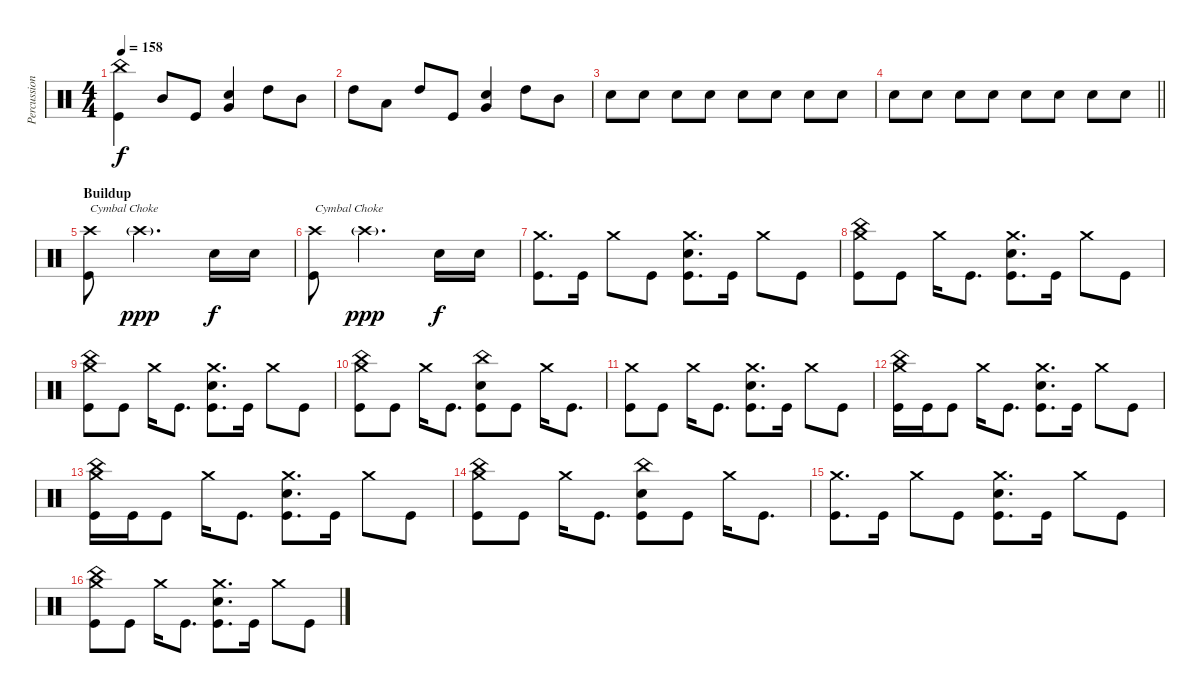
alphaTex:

\track ("Percussion" "Percussion") {instrument percussion}
\staff {score}
\articulation defaults
\ts (4 4)
\tempo 158
\clef neutral
\ks c
("China (hit)" "Kick (hit)").4{dy f} "Mid Tom (hit)".8 "Kick (hit)".8 ("Electric Snare (hit)" "Very Low Tom (hit)").4 "High Tom (hit)".8 "Mid Tom (hit)".8 |
"High Tom (hit)".8 "Low Tom (hit)".8 "High Tom (hit)".8 "Kick (hit)".8 ("Electric Snare (hit)" "Very Low Tom (hit)").4 "High Tom (hit)".8 "Mid Tom (hit)".8 |
"Electric Snare (hit)".8 "Electric Snare (hit)".8 "Electric Snare (hit)".8 "Electric Snare (hit)".8 "Electric Snare (hit)".8 "Electric Snare (hit)".8 "Electric Snare (hit)".8 "Electric Snare (hit)".8 |
\barLineRight lightlight "Electric Snare (hit)".8 "Electric Snare (hit)".8 "Electric Snare (hit)".8 "Electric Snare (hit)".8 "Electric Snare (hit)".8 "Electric Snare (hit)".8 "Electric Snare (hit)".8 "Electric Snare (hit)".8
|
\section ("" "Buildup")
("Crash high (hit)" "Kick (hit)").8{txt "Cymbal Choke"} "Crash high (hit)"{g}.2{d dy ppp} "Electric Snare (hit)".16{dy f} "Electric Snare (hit)".16 |
("Crash high (hit)" "Kick (hit)").8{txt "Cymbal Choke"} "Crash high (hit)"{g}.2{d dy ppp} "Electric Snare (hit)".16{dy f} "Electric Snare (hit)".16 |
("Crash medium (hit)" "Kick (hit)").8{d} "Kick (hit)".16 "Crash medium (hit)".8 "Kick (hit)".8 ("Crash medium (hit)" "Electric Snare (hit)" "Kick (hit)").8{d} "Kick (hit)".16 "Crash medium (hit)".8 "Kick (hit)".8 |
("Crash medium (hit)" "China (hit)" "Kick (hit)").8 "Kick (hit)".8 "Crash medium (hit)".16 "Kick (hit)".8{d} ("Crash medium (hit)" "Electric Snare (hit)" "Kick (hit)").8{d} "Kick (hit)".16 "Crash medium (hit)".8 "Kick (hit)".8 |
("Crash medium (hit)" "China (hit)" "Kick (hit)").8 "Kick (hit)".8 "Crash medium (hit)".16 "Kick (hit)".8{d} ("Crash medium (hit)" "Electric Snare (hit)" "Kick (hit)").8{d} "Kick (hit)".16 "Crash medium (hit)".8 "Kick (hit)".8 |
("Crash medium (hit)" "China (hit)" "Kick (hit)").8 "Kick (hit)".8 "Crash medium (hit)".16 "Kick (hit)".8{d} ("China (hit)" "Electric Snare (hit)" "Kick (hit)").8 "Kick (hit)".8 "Crash medium (hit)".16 "Kick (hit)".8{d} |
("Crash medium (hit)" "Kick (hit)").8 "Kick (hit)".8 "Crash medium (hit)".16 "Kick (hit)".8{d} ("Crash medium (hit)" "Electric Snare (hit)" "Kick (hit)").8{d} "Kick (hit)".16 "Crash medium (hit)".8 "Kick (hit)".8 |
("Crash medium (hit)" "China (hit)" "Kick (hit)").16 "Kick (hit)".16 "Kick (hit)".8 "Crash medium (hit)".16 "Kick (hit)".8{d} ("Crash medium (hit)" "Electric Snare (hit)" "Kick (hit)").8{d} "Kick (hit)".16 "Crash medium (hit)".8 "Kick (hit)".8 |
("Crash medium (hit)" "China (hit)" "Kick (hit)").16 "Kick (hit)".16 "Kick (hit)".8 "Crash medium (hit)".16 "Kick (hit)".8{d} ("Crash medium (hit)" "Electric Snare (hit)" "Kick (hit)").8{d} "Kick (hit)".16 "Crash medium (hit)".8 "Kick (hit)".8 |
("Crash medium (hit)" "China (hit)" "Kick (hit)").8 "Kick (hit)".8 "Crash medium (hit)".16 "Kick (hit)".8{d} ("China (hit)" "Electric Snare (hit)" "Kick (hit)").8 "Kick (hit)".8 "Crash medium (hit)".16 "Kick (hit)".8{d} |
("Crash medium (hit)" "Kick (hit)").8{d} "Kick (hit)".16 "Crash medium (hit)".8 "Kick (hit)".8 ("Crash medium (hit)" "Electric Snare (hit)" "Kick (hit)").8{d} "Kick (hit)".16 "Crash medium (hit)".8 "Kick (hit)".8 |
("Crash medium (hit)" "China (hit)" "Kick (hit)").8 "Kick (hit)".8 "Crash medium (hit)".16 "Kick (hit)".8{d} ("Crash medium (hit)" "Electric Snare (hit)" "Kick (hit)").8{d} "Kick (hit)".16 "Crash medium (hit)".8 "Kick (hit)".8
